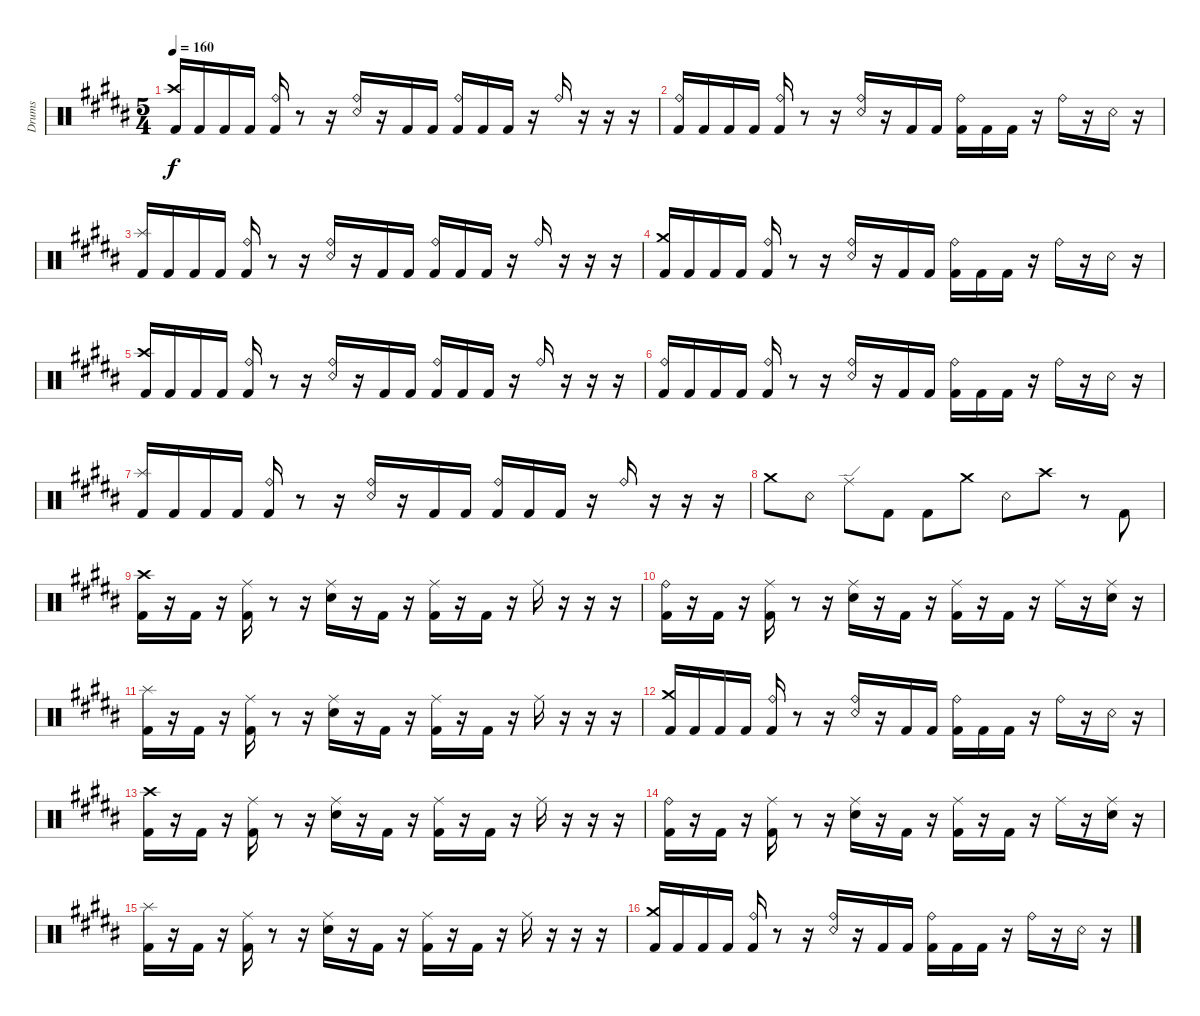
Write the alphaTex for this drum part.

\bracketExtendMode groupsimilarinstruments
\otherSystemsTrackNameOrientation horizontal
\track ("Drumkit" "Drums") {instrument percussion}
\staff {score}
\articulation defaults
\ts (5 4)
\tempo 160
\clef neutral
\ks b
("Kick (hit) 2"{acc bb} "Crash high (hit)"{acc bb}).16{dy f beam Up} "Kick (hit) 2"{acc bb}.16{beam Up} "Kick (hit) 2"{acc bb}.16{beam Up} "Kick (hit) 2"{acc bb}.16{beam Up} ("Kick (hit) 2"{acc bb} "Ride (bell)"{acc bb}).16{beam Up} r.8{beam Up} r.16{beam Up} ("Ride (bell)"{acc bb} "Snare (rim shot)"{acc bb}).16{beam Up} r.16{beam Up} "Kick (hit) 2"{acc bb}.16{beam Up} "Kick (hit) 2"{acc bb}.16{beam Up} ("Kick (hit) 2"{acc bb} "Ride (bell)"{acc bb}).16{beam Up} "Kick (hit) 2"{acc bb}.16{beam Up} "Kick (hit) 2"{acc bb}.16{beam Up} r.16{beam Up} "Ride (bell)"{acc bb}.16{beam Up} r.16{beam Up} r.16{beam Up} r.16{beam Up} |
("Kick (hit) 2"{acc bb} "Ride (bell)"{acc bb}).16{beam Up} "Kick (hit) 2"{acc bb}.16{beam Up} "Kick (hit) 2"{acc bb}.16{beam Up} "Kick (hit) 2"{acc bb}.16{beam Up} ("Kick (hit) 2"{acc bb} "Ride (bell)"{acc bb}).16{beam Up} r.8{beam Up} r.16{beam Up} ("Ride (bell)"{acc bb} "Snare (rim shot)"{acc bb}).16{beam Up} r.16{beam Up} "Kick (hit) 2"{acc bb}.16{beam Up} "Kick (hit) 2"{acc bb}.16{beam Up} ("Kick (hit) 2"{acc bb} "Ride (bell)"{acc bb}).16{beam Down} "Kick (hit) 2"{acc bb}.16{beam Down} "Kick (hit) 2"{acc bb}.16{beam Down} r.16{beam Down} "Ride (bell)"{acc bb}.16{beam Down} r.16{beam Down} "Snare (rim shot)"{acc bb}.16{beam Down} r.16{beam Down} |
("Kick (hit) 2"{acc bb} "Splash (hit)"{acc bb}).16{beam Up} "Kick (hit) 2"{acc bb}.16{beam Up} "Kick (hit) 2"{acc bb}.16{beam Up} "Kick (hit) 2"{acc bb}.16{beam Up} ("Kick (hit) 2"{acc bb} "Ride (bell)"{acc bb}).16{beam Up} r.8{beam Up} r.16{beam Up} ("Ride (bell)"{acc bb} "Snare (rim shot)"{acc bb}).16{beam Up} r.16{beam Up} "Kick (hit) 2"{acc bb}.16{beam Up} "Kick (hit) 2"{acc bb}.16{beam Up} ("Kick (hit) 2"{acc bb} "Ride (bell)"{acc bb}).16{beam Up} "Kick (hit) 2"{acc bb}.16{beam Up} "Kick (hit) 2"{acc bb}.16{beam Up} r.16{beam Up} "Ride (bell)"{acc bb}.16{beam Up} r.16{beam Up} r.16{beam Up} r.16{beam Up} |
("Kick (hit) 2"{acc bb} "Crash medium (hit)"{acc bb}).16{beam Up} "Kick (hit) 2"{acc bb}.16{beam Up} "Kick (hit) 2"{acc bb}.16{beam Up} "Kick (hit) 2"{acc bb}.16{beam Up} ("Kick (hit) 2"{acc bb} "Ride (bell)"{acc bb}).16{beam Up} r.8{beam Up} r.16{beam Up} ("Ride (bell)"{acc bb} "Snare (rim shot)"{acc bb}).16{beam Up} r.16{beam Up} "Kick (hit) 2"{acc bb}.16{beam Up} "Kick (hit) 2"{acc bb}.16{beam Up} ("Kick (hit) 2"{acc bb} "Ride (bell)"{acc bb}).16{beam Down} "Kick (hit) 2"{acc bb}.16{beam Down} "Kick (hit) 2"{acc bb}.16{beam Down} r.16{beam Down} "Ride (bell)"{acc bb}.16{beam Down} r.16{beam Down} "Snare (rim shot)"{acc bb}.16{beam Down} r.16{beam Down} |
("Kick (hit) 2"{acc bb} "Crash high (hit)"{acc bb}).16{beam Up} "Kick (hit) 2"{acc bb}.16{beam Up} "Kick (hit) 2"{acc bb}.16{beam Up} "Kick (hit) 2"{acc bb}.16{beam Up} ("Kick (hit) 2"{acc bb} "Ride (bell)"{acc bb}).16{beam Up} r.8{beam Up} r.16{beam Up} ("Ride (bell)"{acc bb} "Snare (rim shot)"{acc bb}).16{beam Up} r.16{beam Up} "Kick (hit) 2"{acc bb}.16{beam Up} "Kick (hit) 2"{acc bb}.16{beam Up} ("Kick (hit) 2"{acc bb} "Ride (bell)"{acc bb}).16{beam Up} "Kick (hit) 2"{acc bb}.16{beam Up} "Kick (hit) 2"{acc bb}.16{beam Up} r.16{beam Up} "Ride (bell)"{acc bb}.16{beam Up} r.16{beam Up} r.16{beam Up} r.16{beam Up} |
("Kick (hit) 2"{acc bb} "Ride (bell)"{acc bb}).16{beam Up} "Kick (hit) 2"{acc bb}.16{beam Up} "Kick (hit) 2"{acc bb}.16{beam Up} "Kick (hit) 2"{acc bb}.16{beam Up} ("Kick (hit) 2"{acc bb} "Ride (bell)"{acc bb}).16{beam Up} r.8{beam Up} r.16{beam Up} ("Ride (bell)"{acc bb} "Snare (rim shot)"{acc bb}).16{beam Up} r.16{beam Up} "Kick (hit) 2"{acc bb}.16{beam Up} "Kick (hit) 2"{acc bb}.16{beam Up} ("Kick (hit) 2"{acc bb} "Ride (bell)"{acc bb}).16{beam Down} "Kick (hit) 2"{acc bb}.16{beam Down} "Kick (hit) 2"{acc bb}.16{beam Down} r.16{beam Down} "Ride (bell)"{acc bb}.16{beam Down} r.16{beam Down} "Snare (rim shot)"{acc bb}.16{beam Down} r.16{beam Down} |
("Kick (hit) 2"{acc bb} "Splash (hit)"{acc bb}).16{beam Up} "Kick (hit) 2"{acc bb}.16{beam Up} "Kick (hit) 2"{acc bb}.16{beam Up} "Kick (hit) 2"{acc bb}.16{beam Up} ("Kick (hit) 2"{acc bb} "Ride (bell)"{acc bb}).16{beam Up} r.8{beam Up} r.16{beam Up} ("Ride (bell)"{acc bb} "Snare (rim shot)"{acc bb}).16{beam Up} r.16{beam Up} "Kick (hit) 2"{acc bb}.16{beam Up} "Kick (hit) 2"{acc bb}.16{beam Up} ("Kick (hit) 2"{acc bb} "Ride (bell)"{acc bb}).16{beam Up} "Kick (hit) 2"{acc bb}.16{beam Up} "Kick (hit) 2"{acc bb}.16{beam Up} r.16{beam Up} "Ride (bell)"{acc bb}.16{beam Up} r.16{beam Up} r.16{beam Up} r.16{beam Up} |
"Crash medium (hit)"{acc bb}.8{beam Down} "Snare (rim shot)"{acc bb}.8{beam Down} "Ride (edge)"{acc bb}.8{beam Down} "Kick (hit) 2"{acc bb}.8{beam Down} "Kick (hit) 2"{acc bb}.8{beam Down} "Crash medium (hit)"{acc bb}.8{beam Down} "Snare (rim shot)"{acc bb}.8{beam Down} "Crash high (hit)"{acc bb}.8{beam Down} r.8{beam Down} "Kick (hit) 2"{acc bb}.8{beam Down} |
("Kick (hit) 2"{acc bb} "Crash high (hit)"{acc bb}).16{beam Down} r.16{beam Down} "Kick (hit) 2"{acc bb}.16{beam Down} r.16{beam Down} ("Kick (hit) 2"{acc bb} "Ride (middle)"{acc bb}).16{beam Down} r.8{beam Down} r.16{beam Down} ("Ride (middle)"{acc bb} "Snare (hit) 2"{acc bb}).16{beam Down} r.16{beam Down} "Kick (hit) 2"{acc bb}.16{beam Down} r.16{beam Down} ("Kick (hit) 2"{acc bb} "Ride (middle)"{acc bb}).16{beam Down} r.16{beam Down} "Kick (hit) 2"{acc bb}.16{beam Down} r.16{beam Down} "Ride (middle)"{acc bb}.16{beam Down} r.16{beam Down} r.16{beam Down} r.16{beam Down} |
("Kick (hit) 2"{acc bb} "Ride (bell)"{acc bb}).16{beam Down} r.16{beam Down} "Kick (hit) 2"{acc bb}.16{beam Down} r.16{beam Down} ("Kick (hit) 2"{acc bb} "Ride (middle)"{acc bb}).16{beam Down} r.8{beam Down} r.16{beam Down} ("Ride (middle)"{acc bb} "Snare (hit) 2"{acc bb}).16{beam Down} r.16{beam Down} "Kick (hit) 2"{acc bb}.16{beam Down} r.16{beam Down} ("Kick (hit) 2"{acc bb} "Ride (middle)"{acc bb}).16{beam Down} r.16{beam Down} "Kick (hit) 2"{acc bb}.16{beam Down} r.16{beam Down} "Ride (middle)"{acc bb}.16{beam Down} r.16{beam Down} ("Snare (hit) 2"{acc bb} "Ride (middle)"{acc bb}).16{beam Down} r.16{beam Down} |
("Kick (hit) 2"{acc bb} "Splash (hit)"{acc bb}).16{beam Down} r.16{beam Down} "Kick (hit) 2"{acc bb}.16{beam Down} r.16{beam Down} ("Kick (hit) 2"{acc bb} "Ride (middle)"{acc bb}).16{beam Down} r.8{beam Down} r.16{beam Down} ("Ride (middle)"{acc bb} "Snare (hit) 2"{acc bb}).16{beam Down} r.16{beam Down} "Kick (hit) 2"{acc bb}.16{beam Down} r.16{beam Down} ("Kick (hit) 2"{acc bb} "Ride (middle)"{acc bb}).16{beam Down} r.16{beam Down} "Kick (hit) 2"{acc bb}.16{beam Down} r.16{beam Down} "Ride (middle)"{acc bb}.16{beam Down} r.16{beam Down} r.16{beam Down} r.16{beam Down} |
("Kick (hit) 2"{acc bb} "Crash medium (hit)"{acc bb}).16{beam Up} "Kick (hit) 2"{acc bb}.16{beam Up} "Kick (hit) 2"{acc bb}.16{beam Up} "Kick (hit) 2"{acc bb}.16{beam Up} ("Kick (hit) 2"{acc bb} "Ride (bell)"{acc bb}).16{beam Up} r.8{beam Up} r.16{beam Up} ("Ride (bell)"{acc bb} "Snare (rim shot)"{acc bb}).16{beam Up} r.16{beam Up} "Kick (hit) 2"{acc bb}.16{beam Up} "Kick (hit) 2"{acc bb}.16{beam Up} ("Kick (hit) 2"{acc bb} "Ride (bell)"{acc bb}).16{beam Down} "Kick (hit) 2"{acc bb}.16{beam Down} "Kick (hit) 2"{acc bb}.16{beam Down} r.16{beam Down} "Ride (bell)"{acc bb}.16{beam Down} r.16{beam Down} "Snare (rim shot)"{acc bb}.16{beam Down} r.16{beam Down} |
("Kick (hit) 2"{acc bb} "Crash high (hit)"{acc bb}).16{beam Down} r.16{beam Down} "Kick (hit) 2"{acc bb}.16{beam Down} r.16{beam Down} ("Kick (hit) 2"{acc bb} "Ride (middle)"{acc bb}).16{beam Down} r.8{beam Down} r.16{beam Down} ("Ride (middle)"{acc bb} "Snare (hit) 2"{acc bb}).16{beam Down} r.16{beam Down} "Kick (hit) 2"{acc bb}.16{beam Down} r.16{beam Down} ("Kick (hit) 2"{acc bb} "Ride (middle)"{acc bb}).16{beam Down} r.16{beam Down} "Kick (hit) 2"{acc bb}.16{beam Down} r.16{beam Down} "Ride (middle)"{acc bb}.16{beam Down} r.16{beam Down} r.16{beam Down} r.16{beam Down} |
("Kick (hit) 2"{acc bb} "Ride (bell)"{acc bb}).16{beam Down} r.16{beam Down} "Kick (hit) 2"{acc bb}.16{beam Down} r.16{beam Down} ("Kick (hit) 2"{acc bb} "Ride (middle)"{acc bb}).16{beam Down} r.8{beam Down} r.16{beam Down} ("Ride (middle)"{acc bb} "Snare (hit) 2"{acc bb}).16{beam Down} r.16{beam Down} "Kick (hit) 2"{acc bb}.16{beam Down} r.16{beam Down} ("Kick (hit) 2"{acc bb} "Ride (middle)"{acc bb}).16{beam Down} r.16{beam Down} "Kick (hit) 2"{acc bb}.16{beam Down} r.16{beam Down} "Ride (middle)"{acc bb}.16{beam Down} r.16{beam Down} ("Snare (hit) 2"{acc bb} "Ride (middle)"{acc bb}).16{beam Down} r.16{beam Down} |
("Kick (hit) 2"{acc bb} "Splash (hit)"{acc bb}).16{beam Down} r.16{beam Down} "Kick (hit) 2"{acc bb}.16{beam Down} r.16{beam Down} ("Kick (hit) 2"{acc bb} "Ride (middle)"{acc bb}).16{beam Down} r.8{beam Down} r.16{beam Down} ("Ride (middle)"{acc bb} "Snare (hit) 2"{acc bb}).16{beam Down} r.16{beam Down} "Kick (hit) 2"{acc bb}.16{beam Down} r.16{beam Down} ("Kick (hit) 2"{acc bb} "Ride (middle)"{acc bb}).16{beam Down} r.16{beam Down} "Kick (hit) 2"{acc bb}.16{beam Down} r.16{beam Down} "Ride (middle)"{acc bb}.16{beam Down} r.16{beam Down} r.16{beam Down} r.16{beam Down} |
("Kick (hit) 2"{acc bb} "Crash medium (hit)"{acc bb}).16{beam Up} "Kick (hit) 2"{acc bb}.16{beam Up} "Kick (hit) 2"{acc bb}.16{beam Up} "Kick (hit) 2"{acc bb}.16{beam Up} ("Kick (hit) 2"{acc bb} "Ride (bell)"{acc bb}).16{beam Up} r.8{beam Up} r.16{beam Up} ("Ride (bell)"{acc bb} "Snare (rim shot)"{acc bb}).16{beam Up} r.16{beam Up} "Kick (hit) 2"{acc bb}.16{beam Up} "Kick (hit) 2"{acc bb}.16{beam Up} ("Kick (hit) 2"{acc bb} "Ride (bell)"{acc bb}).16{beam Down} "Kick (hit) 2"{acc bb}.16{beam Down} "Kick (hit) 2"{acc bb}.16{beam Down} r.16{beam Down} "Ride (bell)"{acc bb}.16{beam Down} r.16{beam Down} "Snare (rim shot)"{acc bb}.16{beam Down} r.16{beam Down}
